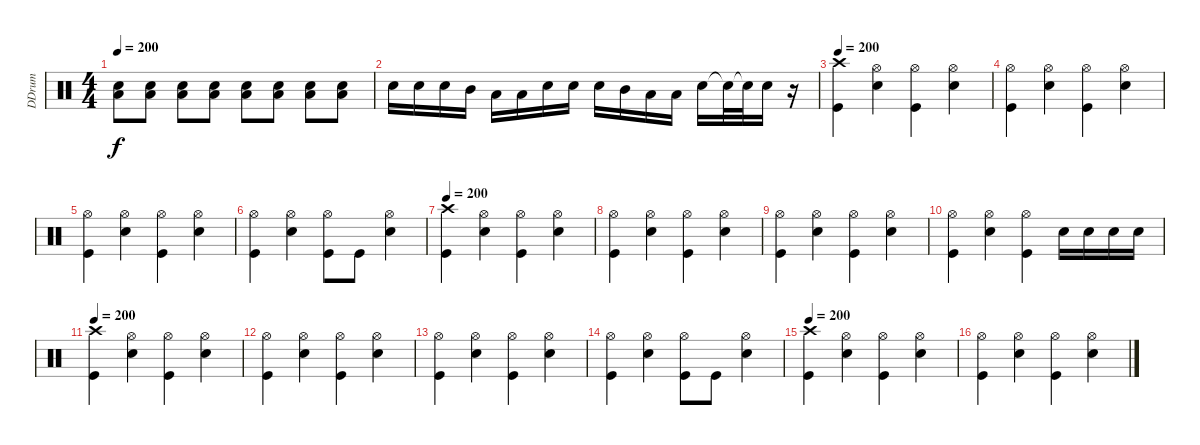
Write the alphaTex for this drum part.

\track ("DDrum" "DDrum") {instrument percussion}
\staff {score}
\articulation defaults
\ts (4 4)
\tempo 200
\clef neutral
\ks c
("Electric Snare (hit)" "Low Tom (hit)").8{dy f} ("Electric Snare (hit)" "Low Tom (hit)").8 ("Electric Snare (hit)" "Low Tom (hit)").8 ("Electric Snare (hit)" "Low Tom (hit)").8 ("Electric Snare (hit)" "Low Tom (hit)").8 ("Electric Snare (hit)" "Low Tom (hit)").8 ("Electric Snare (hit)" "Low Tom (hit)").8 ("Electric Snare (hit)" "Low Tom (hit)").8 |
"Electric Snare (hit)".16 "Electric Snare (hit)".16 "Electric Snare (hit)".16 "Mid Tom (hit)".16 "Low Tom (hit)".16 "Low Floor Tom (hit)".16 "Electric Snare (hit)".16 "Electric Snare (hit)".16 "Electric Snare (hit)".16 "Mid Tom (hit)".16 "Low Tom (hit)".16 "Low Floor Tom (hit)".16 "Electric Snare (hit)".16 "Electric Snare (hit)"{t}.32 "Electric Snare (hit)"{t}.32 "Electric Snare (hit)".16 r.16 |
\tempo 200
("Crash high (hit)" "Kick (hit)").4 ("Hi-Hat (open)" "Electric Snare (hit)").4 ("Hi-Hat (open)" "Kick (hit)").4 ("Hi-Hat (open)" "Electric Snare (hit)").4 |
("Hi-Hat (open)" "Kick (hit)").4 ("Hi-Hat (open)" "Electric Snare (hit)").4 ("Hi-Hat (open)" "Kick (hit)").4 ("Hi-Hat (open)" "Electric Snare (hit)").4 |
("Hi-Hat (open)" "Kick (hit)").4 ("Hi-Hat (open)" "Electric Snare (hit)").4 ("Hi-Hat (open)" "Kick (hit)").4 ("Hi-Hat (open)" "Electric Snare (hit)").4 |
("Hi-Hat (open)" "Kick (hit)").4 ("Hi-Hat (open)" "Electric Snare (hit)").4 ("Hi-Hat (open)" "Kick (hit)").8 "Kick (hit)".8 ("Hi-Hat (open)" "Electric Snare (hit)").4 |
\tempo 200
("Crash high (hit)" "Kick (hit)").4 ("Hi-Hat (open)" "Electric Snare (hit)").4 ("Hi-Hat (open)" "Kick (hit)").4 ("Hi-Hat (open)" "Electric Snare (hit)").4 |
("Hi-Hat (open)" "Kick (hit)").4 ("Hi-Hat (open)" "Electric Snare (hit)").4 ("Hi-Hat (open)" "Kick (hit)").4 ("Hi-Hat (open)" "Electric Snare (hit)").4 |
("Hi-Hat (open)" "Kick (hit)").4 ("Hi-Hat (open)" "Electric Snare (hit)").4 ("Hi-Hat (open)" "Kick (hit)").4 ("Hi-Hat (open)" "Electric Snare (hit)").4 |
("Hi-Hat (open)" "Kick (hit)").4 ("Hi-Hat (open)" "Electric Snare (hit)").4 ("Hi-Hat (open)" "Kick (hit)").4 "Electric Snare (hit)".16 "Electric Snare (hit)".16 "Electric Snare (hit)".16 "Electric Snare (hit)".16 |
\tempo 200
("Crash high (hit)" "Kick (hit)").4 ("Hi-Hat (open)" "Electric Snare (hit)").4 ("Hi-Hat (open)" "Kick (hit)").4 ("Hi-Hat (open)" "Electric Snare (hit)").4 |
("Hi-Hat (open)" "Kick (hit)").4 ("Hi-Hat (open)" "Electric Snare (hit)").4 ("Hi-Hat (open)" "Kick (hit)").4 ("Hi-Hat (open)" "Electric Snare (hit)").4 |
("Hi-Hat (open)" "Kick (hit)").4 ("Hi-Hat (open)" "Electric Snare (hit)").4 ("Hi-Hat (open)" "Kick (hit)").4 ("Hi-Hat (open)" "Electric Snare (hit)").4 |
("Hi-Hat (open)" "Kick (hit)").4 ("Hi-Hat (open)" "Electric Snare (hit)").4 ("Hi-Hat (open)" "Kick (hit)").8 "Kick (hit)".8 ("Hi-Hat (open)" "Electric Snare (hit)").4 |
\tempo 200
("Crash high (hit)" "Kick (hit)").4 ("Hi-Hat (open)" "Electric Snare (hit)").4 ("Hi-Hat (open)" "Kick (hit)").4 ("Hi-Hat (open)" "Electric Snare (hit)").4 |
("Hi-Hat (open)" "Kick (hit)").4 ("Hi-Hat (open)" "Electric Snare (hit)").4 ("Hi-Hat (open)" "Kick (hit)").4 ("Hi-Hat (open)" "Electric Snare (hit)").4
